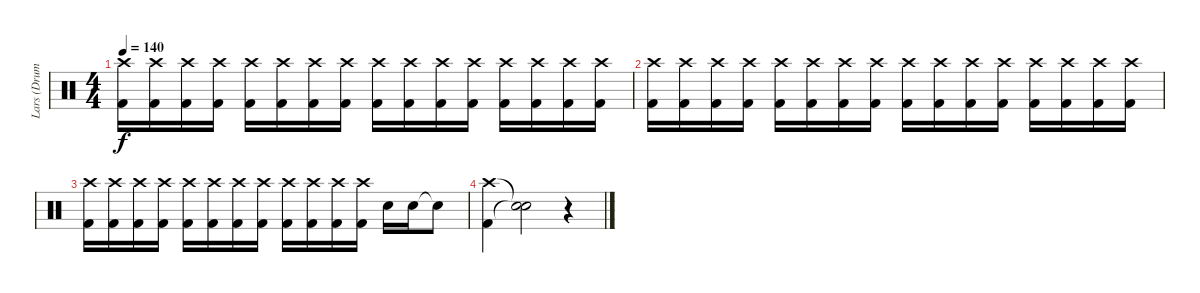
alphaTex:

\track ("Lars (Drums)" "Lars (Drum") {instrument percussion}
\staff {score}
\articulation defaults
\ts (4 4)
\tempo 140
\clef neutral
\ks c
("Crash high (hit)" "Kick (hit) 2").16{dy f} ("Crash high (hit)" "Kick (hit) 2").16 ("Crash high (hit)" "Kick (hit) 2").16 ("Crash high (hit)" "Kick (hit) 2").16 ("Crash high (hit)" "Kick (hit) 2").16 ("Crash high (hit)" "Kick (hit) 2").16 ("Crash high (hit)" "Kick (hit) 2").16 ("Crash high (hit)" "Kick (hit) 2").16 ("Crash high (hit)" "Kick (hit) 2").16 ("Crash high (hit)" "Kick (hit) 2").16 ("Crash high (hit)" "Kick (hit) 2").16 ("Crash high (hit)" "Kick (hit) 2").16 ("Crash high (hit)" "Kick (hit) 2").16 ("Crash high (hit)" "Kick (hit) 2").16 ("Crash high (hit)" "Kick (hit) 2").16 ("Crash high (hit)" "Kick (hit) 2").16 |
("Crash high (hit)" "Kick (hit) 2").16 ("Crash high (hit)" "Kick (hit) 2").16 ("Crash high (hit)" "Kick (hit) 2").16 ("Crash high (hit)" "Kick (hit) 2").16 ("Crash high (hit)" "Kick (hit) 2").16 ("Crash high (hit)" "Kick (hit) 2").16 ("Crash high (hit)" "Kick (hit) 2").16 ("Crash high (hit)" "Kick (hit) 2").16 ("Crash high (hit)" "Kick (hit) 2").16 ("Crash high (hit)" "Kick (hit) 2").16 ("Crash high (hit)" "Kick (hit) 2").16 ("Crash high (hit)" "Kick (hit) 2").16 ("Crash high (hit)" "Kick (hit) 2").16 ("Crash high (hit)" "Kick (hit) 2").16 ("Crash high (hit)" "Kick (hit) 2").16 ("Crash high (hit)" "Kick (hit) 2").16 |
("Crash high (hit)" "Kick (hit) 2").16 ("Crash high (hit)" "Kick (hit) 2").16 ("Crash high (hit)" "Kick (hit) 2").16 ("Crash high (hit)" "Kick (hit) 2").16 ("Crash high (hit)" "Kick (hit) 2").16 ("Crash high (hit)" "Kick (hit) 2").16 ("Crash high (hit)" "Kick (hit) 2").16 ("Crash high (hit)" "Kick (hit) 2").16 ("Crash high (hit)" "Kick (hit) 2").16 ("Crash high (hit)" "Kick (hit) 2").16 ("Crash high (hit)" "Kick (hit) 2").16 ("Crash high (hit)" "Kick (hit) 2").16 "Snare (hit) 2".16 "Snare (hit) 2".16 "Snare (hit)"{t}.8 |
("Crash high (hit)" "Kick (hit) 2").4 ("Snare (hit)"{t} "Snare (hit)"{t}).2 r.4
